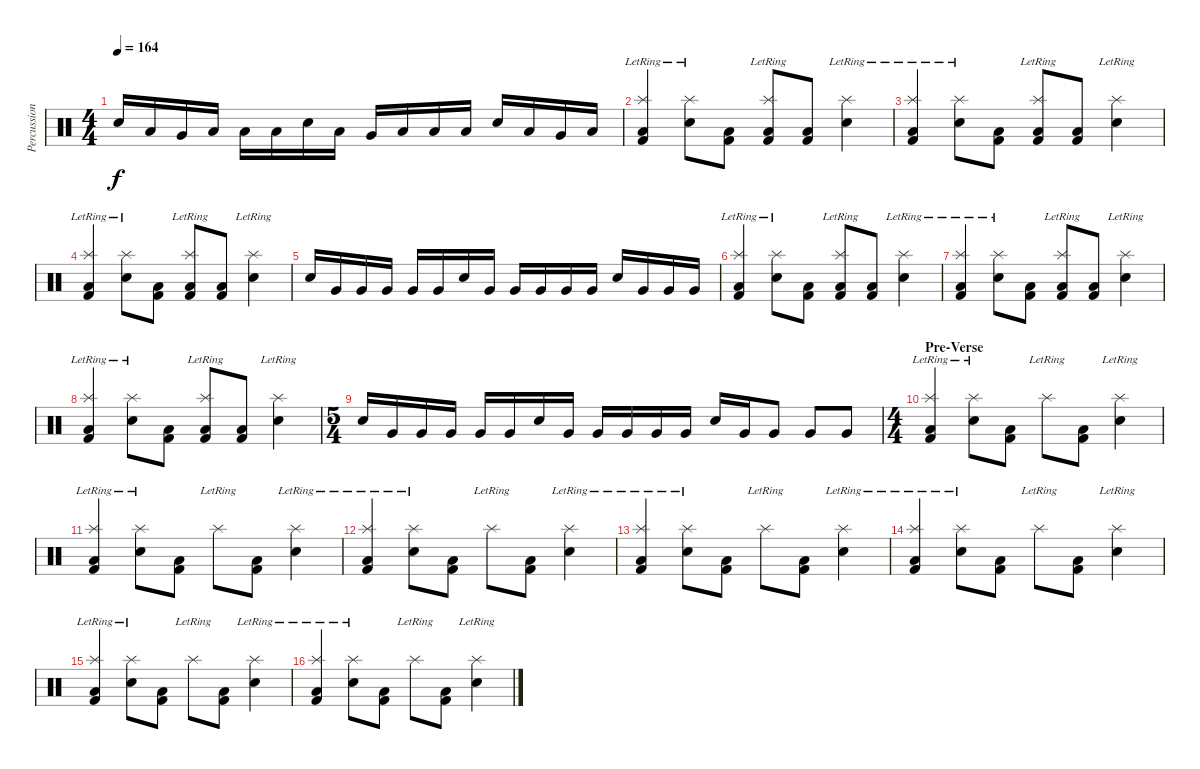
\track ("Percussion" "Percussion") {instrument percussion}
\staff {score}
\articulation defaults
\ts (4 4)
\tempo 164
\clef neutral
\ks c "Snare (hit) 2".16{dy f} "Low Tom (hit)".16 "Very Low Tom (hit)".16 "Low Floor Tom (hit)".16 "Low Floor Tom (hit)".16 "Low Floor Tom (hit)".16 "Snare (hit) 2".16 "Low Tom (hit)".16 "Very Low Tom (hit)".16 "Low Floor Tom (hit)".16 "Low Floor Tom (hit)".16 "Low Floor Tom (hit)".16 "Snare (hit) 2".16 "Low Tom (hit)".16 "Very Low Tom (hit)".16 "Low Floor Tom (hit)".16
|
("Splash (hit)"{lr} "Low Floor Tom (hit)" "Kick (hit) 2").4 ("Splash (hit)"{lr} "Snare (hit) 2").8 ("Low Floor Tom (hit)" "Kick (hit) 2").8 ("Splash (hit)"{lr} "Low Floor Tom (hit)" "Kick (hit) 2").8 ("Low Floor Tom (hit)" "Kick (hit) 2").8 ("Splash (hit)"{lr} "Snare (hit) 2").4 |
("Splash (hit)"{lr} "Low Floor Tom (hit)" "Kick (hit) 2").4 ("Splash (hit)"{lr} "Snare (hit) 2").8 ("Low Floor Tom (hit)" "Kick (hit) 2").8 ("Splash (hit)"{lr} "Low Floor Tom (hit)" "Kick (hit) 2").8 ("Low Floor Tom (hit)" "Kick (hit) 2").8 ("Splash (hit)"{lr} "Snare (hit) 2").4 |
("Splash (hit)"{lr} "Low Floor Tom (hit)" "Kick (hit) 2").4 ("Splash (hit)"{lr} "Snare (hit) 2").8 ("Low Floor Tom (hit)" "Kick (hit) 2").8 ("Splash (hit)"{lr} "Low Floor Tom (hit)" "Kick (hit) 2").8 ("Low Floor Tom (hit)" "Kick (hit) 2").8 ("Splash (hit)"{lr} "Snare (hit) 2").4 |
"Snare (hit) 2".16 "Very Low Tom (hit)".16 "Very Low Tom (hit)".16 "Very Low Tom (hit)".16 "Very Low Tom (hit)".16 "Very Low Tom (hit)".16 "Snare (hit) 2".16 "Very Low Tom (hit)".16 "Very Low Tom (hit)".16 "Very Low Tom (hit)".16 "Very Low Tom (hit)".16 "Very Low Tom (hit)".16 "Snare (hit) 2".16 "Very Low Tom (hit)".16 "Very Low Tom (hit)".16 "Very Low Tom (hit)".16 |
("Splash (hit)"{lr} "Low Floor Tom (hit)" "Kick (hit) 2").4 ("Splash (hit)"{lr} "Snare (hit) 2").8 ("Low Floor Tom (hit)" "Kick (hit) 2").8 ("Splash (hit)"{lr} "Low Floor Tom (hit)" "Kick (hit) 2").8 ("Low Floor Tom (hit)" "Kick (hit) 2").8 ("Splash (hit)"{lr} "Snare (hit) 2").4 |
("Splash (hit)"{lr} "Low Floor Tom (hit)" "Kick (hit) 2").4 ("Splash (hit)"{lr} "Snare (hit) 2").8 ("Low Floor Tom (hit)" "Kick (hit) 2").8 ("Splash (hit)"{lr} "Low Floor Tom (hit)" "Kick (hit) 2").8 ("Low Floor Tom (hit)" "Kick (hit) 2").8 ("Splash (hit)"{lr} "Snare (hit) 2").4 |
("Splash (hit)"{lr} "Low Floor Tom (hit)" "Kick (hit) 2").4 ("Splash (hit)"{lr} "Snare (hit) 2").8 ("Low Floor Tom (hit)" "Kick (hit) 2").8 ("Splash (hit)"{lr} "Low Floor Tom (hit)" "Kick (hit) 2").8 ("Low Floor Tom (hit)" "Kick (hit) 2").8 ("Splash (hit)"{lr} "Snare (hit) 2").4 |
\ts (5 4)
"Snare (hit) 2".16 "Very Low Tom (hit)".16 "Very Low Tom (hit)".16 "Very Low Tom (hit)".16 "Very Low Tom (hit)".16 "Very Low Tom (hit)".16 "Snare (hit) 2".16 "Very Low Tom (hit)".16 "Very Low Tom (hit)".16 "Very Low Tom (hit)".16 "Very Low Tom (hit)".16 "Very Low Tom (hit)".16 "Snare (hit) 2".16 "Very Low Tom (hit)".16 "Very Low Tom (hit)".8 "Very Low Tom (hit)".8 "Very Low Tom (hit)".8 |
\ts (4 4)
\section ("" "Pre-Verse")
("Splash (hit)"{lr} "Low Floor Tom (hit)" "Kick (hit) 2").4 ("Splash (hit)"{lr} "Snare (hit) 2").8 ("Low Floor Tom (hit)" "Kick (hit) 2").8 "Splash (hit)"{lr}.8 ("Low Floor Tom (hit)" "Kick (hit) 2").8 ("Splash (hit)"{lr} "Snare (hit) 2").4 |
("Splash (hit)"{lr} "Low Floor Tom (hit)" "Kick (hit) 2").4 ("Splash (hit)"{lr} "Snare (hit) 2").8 ("Low Floor Tom (hit)" "Kick (hit) 2").8 "Splash (hit)"{lr}.8 ("Low Floor Tom (hit)" "Kick (hit) 2").8 ("Splash (hit)"{lr} "Snare (hit) 2").4 |
("Splash (hit)"{lr} "Low Floor Tom (hit)" "Kick (hit) 2").4 ("Splash (hit)"{lr} "Snare (hit) 2").8 ("Low Floor Tom (hit)" "Kick (hit) 2").8 "Splash (hit)"{lr}.8 ("Low Floor Tom (hit)" "Kick (hit) 2").8 ("Splash (hit)"{lr} "Snare (hit) 2").4 |
("Splash (hit)"{lr} "Low Floor Tom (hit)" "Kick (hit) 2").4 ("Splash (hit)"{lr} "Snare (hit) 2").8 ("Low Floor Tom (hit)" "Kick (hit) 2").8 "Splash (hit)"{lr}.8 ("Low Floor Tom (hit)" "Kick (hit) 2").8 ("Splash (hit)"{lr} "Snare (hit) 2").4 |
("Splash (hit)"{lr} "Low Floor Tom (hit)" "Kick (hit) 2").4 ("Splash (hit)"{lr} "Snare (hit) 2").8 ("Low Floor Tom (hit)" "Kick (hit) 2").8 "Splash (hit)"{lr}.8 ("Low Floor Tom (hit)" "Kick (hit) 2").8 ("Splash (hit)"{lr} "Snare (hit) 2").4 |
("Splash (hit)"{lr} "Low Floor Tom (hit)" "Kick (hit) 2").4 ("Splash (hit)"{lr} "Snare (hit) 2").8 ("Low Floor Tom (hit)" "Kick (hit) 2").8 "Splash (hit)"{lr}.8 ("Low Floor Tom (hit)" "Kick (hit) 2").8 ("Splash (hit)"{lr} "Snare (hit) 2").4 |
("Splash (hit)"{lr} "Low Floor Tom (hit)" "Kick (hit) 2").4 ("Splash (hit)"{lr} "Snare (hit) 2").8 ("Low Floor Tom (hit)" "Kick (hit) 2").8 "Splash (hit)"{lr}.8 ("Low Floor Tom (hit)" "Kick (hit) 2").8 ("Splash (hit)"{lr} "Snare (hit) 2").4
